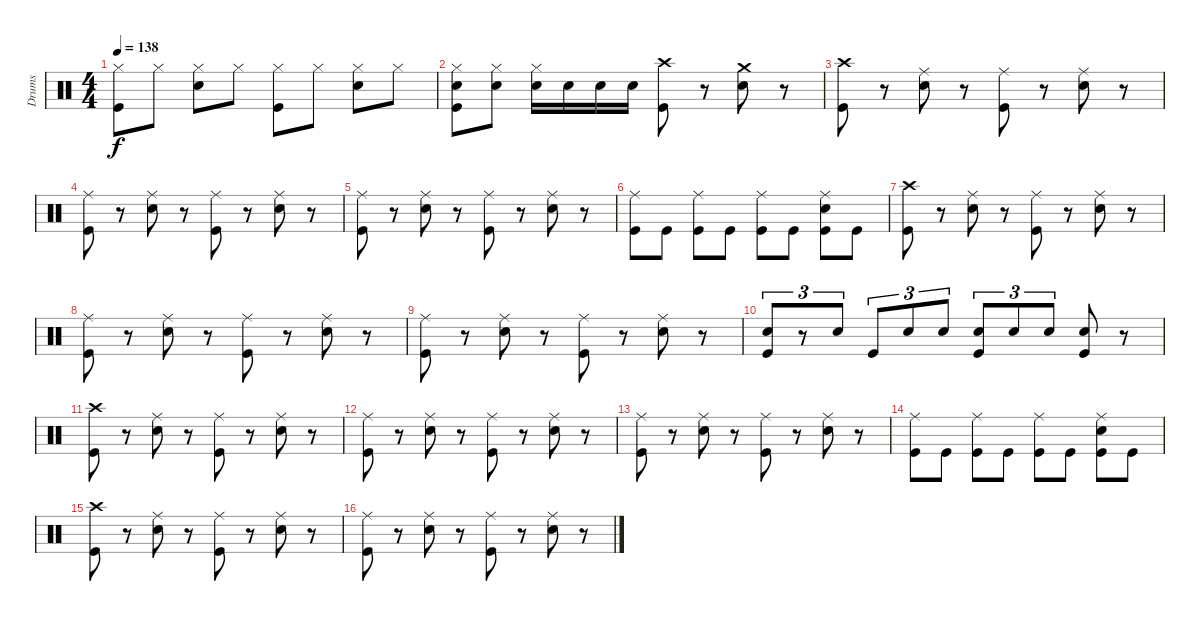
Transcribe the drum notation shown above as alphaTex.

\track ("Drums" "Drums") {instrument percussion}
\staff {score}
\articulation defaults
\ts (4 4)
\tempo 138
\clef neutral
\ks c
("Kick (hit)" "Hi-Hat (closed)").8{dy f} "Hi-Hat (closed)".8 ("Electric Snare (hit)" "Hi-Hat (closed)").8 "Hi-Hat (closed)".8 ("Kick (hit)" "Hi-Hat (closed)").8 "Hi-Hat (closed)".8 ("Electric Snare (hit)" "Hi-Hat (closed)").8 "Hi-Hat (closed)".8 |
("Kick (hit)" "Electric Snare (hit)" "Hi-Hat (closed)").8 ("Electric Snare (hit)" "Hi-Hat (closed)").8 ("Electric Snare (hit)" "Hi-Hat (closed)").16 "Electric Snare (hit)".16 "Electric Snare (hit)".16 "Electric Snare (hit)".16 ("Kick (hit)" "Crash high (hit)").8 r.8 ("Electric Snare (hit)" "Crash medium (hit)").8 r.8 |
("Kick (hit)" "Crash high (hit)").8 r.8 ("Electric Snare (hit)" "Ride (middle)").8 r.8 ("Kick (hit)" "Ride (middle)").8 r.8 ("Electric Snare (hit)" "Ride (middle)").8 r.8 |
("Kick (hit)" "Ride (middle)").8 r.8 ("Electric Snare (hit)" "Ride (middle)").8 r.8 ("Kick (hit)" "Ride (middle)").8 r.8 ("Electric Snare (hit)" "Ride (middle)").8 r.8 |
("Kick (hit)" "Ride (middle)").8 r.8 ("Electric Snare (hit)" "Ride (middle)").8 r.8 ("Kick (hit)" "Ride (middle)").8 r.8 ("Electric Snare (hit)" "Ride (middle)").8 r.8 |
("Kick (hit)" "Ride (middle)").8 "Kick (hit)".8 ("Kick (hit)" "Ride (middle)").8 "Kick (hit)".8 ("Kick (hit)" "Ride (middle)").8 "Kick (hit)".8 ("Kick (hit)" "Electric Snare (hit)" "Ride (middle)").8 "Kick (hit)".8 |
("Kick (hit)" "Crash high (hit)").8 r.8 ("Electric Snare (hit)" "Ride (middle)").8 r.8 ("Kick (hit)" "Ride (middle)").8 r.8 ("Electric Snare (hit)" "Ride (middle)").8 r.8 |
("Kick (hit)" "Ride (middle)").8 r.8 ("Electric Snare (hit)" "Ride (middle)").8 r.8 ("Kick (hit)" "Ride (middle)").8 r.8 ("Electric Snare (hit)" "Ride (middle)").8 r.8 |
("Kick (hit)" "Ride (middle)").8 r.8 ("Electric Snare (hit)" "Ride (middle)").8 r.8 ("Kick (hit)" "Ride (middle)").8 r.8 ("Electric Snare (hit)" "Ride (middle)").8 r.8 |
("Kick (hit)" "Electric Snare (hit)").8{tu (3 2)} r.8{tu (3 2)} "Electric Snare (hit)".8{tu (3 2)} "Kick (hit)".8{tu (3 2)} "Electric Snare (hit)".8{tu (3 2)} "Electric Snare (hit)".8{tu (3 2)} ("Kick (hit)" "Electric Snare (hit)").8{tu (3 2)} "Electric Snare (hit)".8{tu (3 2)} "Electric Snare (hit)".8{tu (3 2)} ("Kick (hit)" "Electric Snare (hit)").8 r.8 |
("Kick (hit)" "Crash high (hit)").8 r.8 ("Electric Snare (hit)" "Ride (middle)").8 r.8 ("Kick (hit)" "Ride (middle)").8 r.8 ("Electric Snare (hit)" "Ride (middle)").8 r.8 |
("Kick (hit)" "Ride (middle)").8 r.8 ("Electric Snare (hit)" "Ride (middle)").8 r.8 ("Kick (hit)" "Ride (middle)").8 r.8 ("Electric Snare (hit)" "Ride (middle)").8 r.8 |
("Kick (hit)" "Ride (middle)").8 r.8 ("Electric Snare (hit)" "Ride (middle)").8 r.8 ("Kick (hit)" "Ride (middle)").8 r.8 ("Electric Snare (hit)" "Ride (middle)").8 r.8 |
("Kick (hit)" "Ride (middle)").8 "Kick (hit)".8 ("Kick (hit)" "Ride (middle)").8 "Kick (hit)".8 ("Kick (hit)" "Ride (middle)").8 "Kick (hit)".8 ("Kick (hit)" "Electric Snare (hit)" "Ride (middle)").8 "Kick (hit)".8 |
("Kick (hit)" "Crash high (hit)").8 r.8 ("Electric Snare (hit)" "Ride (middle)").8 r.8 ("Kick (hit)" "Ride (middle)").8 r.8 ("Electric Snare (hit)" "Ride (middle)").8 r.8 |
("Kick (hit)" "Ride (middle)").8 r.8 ("Electric Snare (hit)" "Ride (middle)").8 r.8 ("Kick (hit)" "Ride (middle)").8 r.8 ("Electric Snare (hit)" "Ride (middle)").8 r.8
